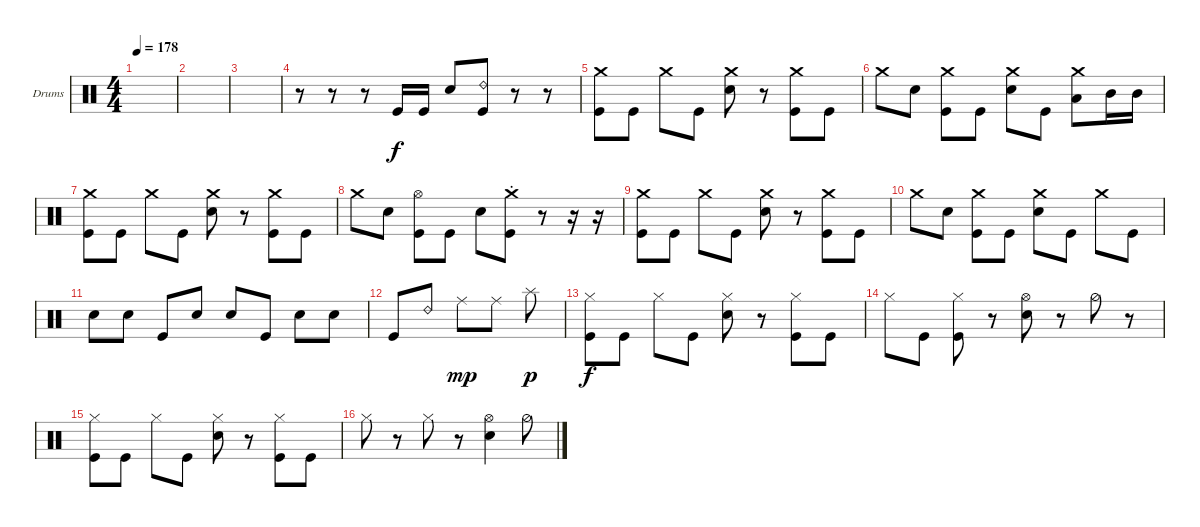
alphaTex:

\bracketExtendMode groupsimilarinstruments
\firstSystemTrackNameOrientation horizontal
\otherSystemsTrackNameOrientation horizontal
\track ("Drums" "Drums") {instrument percussion}
\staff {score}
\articulation defaults
\ts (4 4)
\tempo 178
\clef neutral
\ks c
|
|
|
r.8 r.8 r.8 "Kick (hit)".16 "Kick (hit)".16 "Snare (hit) 2".8 ("Kick (hit)" "Ride (bell) 2").8 r.8 r.8 |
("Kick (hit)" "Crash medium (hit)").8 "Kick (hit)".8 "Crash medium (hit)".8 "Kick (hit)".8 ("Snare (hit) 2" "Crash medium (hit)").8 r.8 ("Kick (hit)" "Crash medium (hit)").8 "Kick (hit)".8 |
"Crash medium (hit)".8 "Snare (hit) 2".8 ("Kick (hit)" "Crash medium (hit)").8 "Kick (hit)".8 ("Snare (hit) 2" "Crash medium (hit)").8 "Kick (hit)".8 ("Low Tom (hit)" "Crash medium (hit)").8 "Mid Tom (hit)".16 "Mid Tom (hit)".16 |
("Kick (hit)" "Crash medium (hit)").8 "Kick (hit)".8 "Crash medium (hit)".8 "Kick (hit)".8 ("Snare (hit) 2" "Crash medium (hit)").8 r.8 ("Kick (hit)" "Crash medium (hit)").8 "Kick (hit)".8 |
"Crash medium (hit)".8 "Snare (hit) 2".8 ("Kick (hit)" "Hi-Hat (open)").8 "Kick (hit)".8 "Snare (hit) 2".8 ("Crash medium (hit)"{st} "Kick (hit)").8 r.8 r.16 r.16 |
("Kick (hit)" "Crash medium (hit)").8 "Kick (hit)".8 "Crash medium (hit)".8 "Kick (hit)".8 ("Snare (hit) 2" "Crash medium (hit)").8 r.8 ("Kick (hit)" "Crash medium (hit)").8 "Kick (hit)".8 |
"Crash medium (hit)".8 "Snare (hit) 2".8 ("Kick (hit)" "Crash medium (hit)").8 "Kick (hit)".8 ("Snare (hit) 2" "Crash medium (hit)").8 "Kick (hit)".8 "Crash medium (hit)".8 "Kick (hit)".8 |
"Snare (hit) 2".8 "Snare (hit) 2".8 "Kick (hit)".8 "Snare (hit) 2".8 "Snare (hit) 2".8 "Kick (hit)".8 "Snare (hit) 2".8 "Snare (hit) 2".8 |
"Kick (hit)".8 "Ride (bell) 2".8 "Ride (middle)".8{dy mp} "Ride (middle)".8 "Splash (hit)".8{dy p} |
("Hi-Hat (closed)" "Kick (hit)").8{dy f} "Kick (hit)".8 "Hi-Hat (closed)".8 "Kick (hit)".8 ("Hi-Hat (closed)" "Snare (hit) 2").8 r.8 ("Hi-Hat (closed)" "Kick (hit)").8 "Kick (hit)".8 |
"Hi-Hat (closed)".8 "Kick (hit)".8 ("Hi-Hat (closed)" "Kick (hit)").8 r.8 ("Snare (hit) 2" "Hi-Hat (open)").8 r.8 "Hi-Hat (half)".8 r.8 |
("Hi-Hat (closed)" "Kick (hit)").8 "Kick (hit)".8 "Hi-Hat (closed)".8 "Kick (hit)".8 ("Hi-Hat (closed)" "Snare (hit) 2").8 r.8 ("Hi-Hat (closed)" "Kick (hit)").8 "Kick (hit)".8 |
"Hi-Hat (closed)".8 r.8 "Hi-Hat (closed)".8 r.8 ("Snare (hit) 2" "Hi-Hat (open)").4 "Hi-Hat (half)".8
